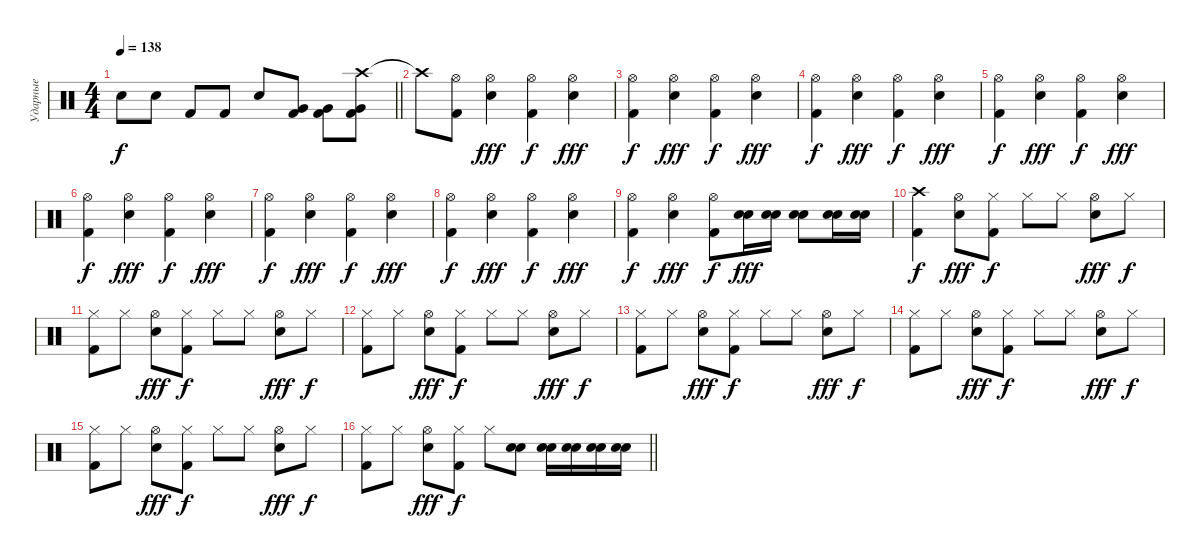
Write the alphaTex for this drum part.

\track ("Ударные" "Ударные") {instrument percussion}
\staff {score}
\articulation defaults
\ts (4 4)
\tempo 138
\clef neutral
\barLineRight lightlight
\ks c "Snare (hit)"{t}.8{dy f} "Electric Snare (hit)".8 "Kick (hit) 2".8 "Kick (hit) 2".8 "Electric Snare (hit)".8
("Very Low Tom (hit)" "Kick (hit) 2").8 ("Very Low Tom (hit)" "Kick (hit) 2").8 ("Crash high (hit)" "Very Low Tom (hit)" "Kick (hit) 2").8 |
"Crash high (hit)"{t}.8 ("Hi-Hat (open)" "Kick (hit) 2").8 ("Hi-Hat (open)" "Electric Snare (hit)").4{dy fff} ("Hi-Hat (open)" "Kick (hit) 2").4{dy f} ("Hi-Hat (open)" "Electric Snare (hit)").4{dy fff} |
("Hi-Hat (open)" "Kick (hit) 2").4{dy f} ("Hi-Hat (open)" "Electric Snare (hit)").4{dy fff} ("Hi-Hat (open)" "Kick (hit) 2").4{dy f} ("Hi-Hat (open)" "Electric Snare (hit)").4{dy fff} |
("Hi-Hat (open)" "Kick (hit) 2").4{dy f} ("Hi-Hat (open)" "Electric Snare (hit)").4{dy fff} ("Hi-Hat (open)" "Kick (hit) 2").4{dy f} ("Hi-Hat (open)" "Electric Snare (hit)").4{dy fff} |
("Hi-Hat (open)" "Kick (hit) 2").4{dy f} ("Hi-Hat (open)" "Electric Snare (hit)").4{dy fff} ("Hi-Hat (open)" "Kick (hit) 2").4{dy f} ("Hi-Hat (open)" "Electric Snare (hit)").4{dy fff} |
("Hi-Hat (open)" "Kick (hit) 2").4{dy f} ("Hi-Hat (open)" "Electric Snare (hit)").4{dy fff} ("Hi-Hat (open)" "Kick (hit) 2").4{dy f} ("Hi-Hat (open)" "Electric Snare (hit)").4{dy fff} |
("Hi-Hat (open)" "Kick (hit) 2").4{dy f} ("Hi-Hat (open)" "Electric Snare (hit)").4{dy fff} ("Hi-Hat (open)" "Kick (hit) 2").4{dy f} ("Hi-Hat (open)" "Electric Snare (hit)").4{dy fff} |
("Hi-Hat (open)" "Kick (hit) 2").4{dy f} ("Hi-Hat (open)" "Electric Snare (hit)").4{dy fff} ("Hi-Hat (open)" "Kick (hit) 2").4{dy f} ("Hi-Hat (open)" "Electric Snare (hit)").4{dy fff} |
("Hi-Hat (open)" "Kick (hit) 2").4{dy f} ("Hi-Hat (open)" "Electric Snare (hit)").4{dy fff} ("Hi-Hat (open)" "Kick (hit) 2").8{dy f} ("Electric Snare (hit)" "Electric Snare (hit)").16{dy fff} ("Electric Snare (hit)" "Electric Snare (hit)").16 ("Electric Snare (hit)" "Electric Snare (hit)").8 ("Electric Snare (hit)" "Electric Snare (hit)").16 ("Electric Snare (hit)" "Electric Snare (hit)").16 |
("Crash high (hit)" "Kick (hit) 2").4{dy f} ("Hi-Hat (open)" "Electric Snare (hit)").8{dy fff} ("Hi-Hat (closed)" "Kick (hit) 2").8{dy f} "Hi-Hat (closed)".8 "Hi-Hat (closed)".8 ("Hi-Hat (open)" "Electric Snare (hit)").8{dy fff} "Hi-Hat (closed)".8{dy f} |
("Hi-Hat (closed)" "Kick (hit) 2").8 "Hi-Hat (closed)".8 ("Hi-Hat (open)" "Electric Snare (hit)").8{dy fff} ("Hi-Hat (closed)" "Kick (hit) 2").8{dy f} "Hi-Hat (closed)".8 "Hi-Hat (closed)".8 ("Hi-Hat (open)" "Electric Snare (hit)").8{dy fff} "Hi-Hat (closed)".8{dy f} |
("Hi-Hat (closed)" "Kick (hit) 2").8 "Hi-Hat (closed)".8 ("Hi-Hat (open)" "Electric Snare (hit)").8{dy fff} ("Hi-Hat (closed)" "Kick (hit) 2").8{dy f} "Hi-Hat (closed)".8 "Hi-Hat (closed)".8 ("Hi-Hat (open)" "Electric Snare (hit)").8{dy fff} "Hi-Hat (closed)".8{dy f} |
("Hi-Hat (closed)" "Kick (hit) 2").8 "Hi-Hat (closed)".8 ("Hi-Hat (open)" "Electric Snare (hit)").8{dy fff} ("Hi-Hat (closed)" "Kick (hit) 2").8{dy f} "Hi-Hat (closed)".8 "Hi-Hat (closed)".8 ("Hi-Hat (open)" "Electric Snare (hit)").8{dy fff} "Hi-Hat (closed)".8{dy f} |
("Hi-Hat (closed)" "Kick (hit) 2").8 "Hi-Hat (closed)".8 ("Hi-Hat (open)" "Electric Snare (hit)").8{dy fff} ("Hi-Hat (closed)" "Kick (hit) 2").8{dy f} "Hi-Hat (closed)".8 "Hi-Hat (closed)".8 ("Hi-Hat (open)" "Electric Snare (hit)").8{dy fff} "Hi-Hat (closed)".8{dy f} |
("Hi-Hat (closed)" "Kick (hit) 2").8 "Hi-Hat (closed)".8 ("Hi-Hat (open)" "Electric Snare (hit)").8{dy fff} ("Hi-Hat (closed)" "Kick (hit) 2").8{dy f} "Hi-Hat (closed)".8 "Hi-Hat (closed)".8 ("Hi-Hat (open)" "Electric Snare (hit)").8{dy fff} "Hi-Hat (closed)".8{dy f} |
\barLineRight lightlight
("Hi-Hat (closed)" "Kick (hit) 2").8 "Hi-Hat (closed)".8 ("Hi-Hat (open)" "Electric Snare (hit)").8{dy fff} ("Hi-Hat (closed)" "Kick (hit) 2").8{dy f} "Hi-Hat (closed)".8 ("Electric Snare (hit)" "Electric Snare (hit)").8 ("Electric Snare (hit)" "Electric Snare (hit)").16 ("Electric Snare (hit)" "Electric Snare (hit)").16 ("Electric Snare (hit)" "Electric Snare (hit)").16 ("Electric Snare (hit)" "Electric Snare (hit)").16
